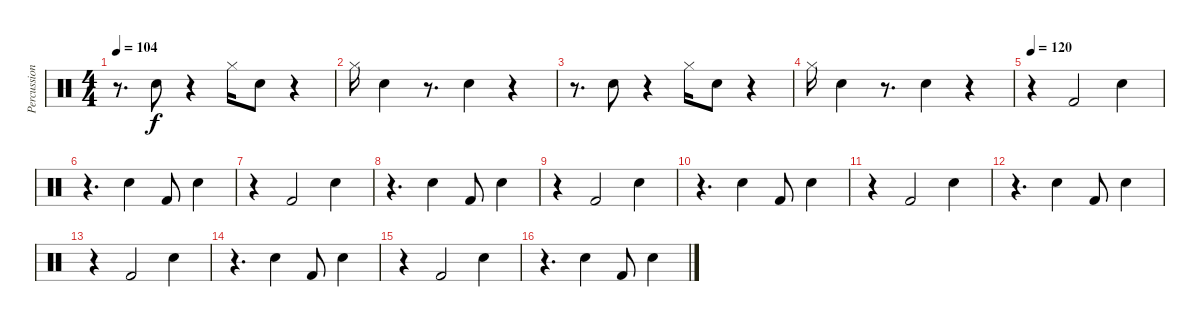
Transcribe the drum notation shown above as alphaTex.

\track ("Percussion(By Bela B.)" "Percussion") {instrument percussion}
\staff {score}
\articulation defaults
\ts (4 4)
\tempo 104
\clef neutral
\ks c
r.8{d dy f} "Electric Snare (hit)".8 r.4 "Hi-Hat (closed)".16 "Electric Snare (hit)".8 r.4 |
"Hi-Hat (closed)".16 "Electric Snare (hit)".4 r.8{d} "Electric Snare (hit)".4 r.4 |
r.8{d} "Electric Snare (hit)".8 r.4 "Hi-Hat (closed)".16 "Electric Snare (hit)".8 r.4 |
"Hi-Hat (closed)".16 "Electric Snare (hit)".4 r.8{d} "Electric Snare (hit)".4 r.4 |
\tempo 120
r.4 "Kick (hit) 2".2 "Snare (hit) 2".4 |
r.4{d} "Electric Snare (hit)".4 "Kick (hit) 2".8 "Snare (hit) 2".4 |
r.4 "Kick (hit) 2".2 "Snare (hit) 2".4 |
r.4{d} "Electric Snare (hit)".4 "Kick (hit) 2".8 "Snare (hit) 2".4 |
r.4 "Kick (hit) 2".2 "Snare (hit) 2".4 |
r.4{d} "Electric Snare (hit)".4 "Kick (hit) 2".8 "Snare (hit) 2".4 |
r.4 "Kick (hit) 2".2 "Snare (hit) 2".4 |
r.4{d} "Electric Snare (hit)".4 "Kick (hit) 2".8 "Snare (hit) 2".4 |
r.4 "Kick (hit) 2".2 "Snare (hit) 2".4 |
r.4{d} "Electric Snare (hit)".4 "Kick (hit) 2".8 "Snare (hit) 2".4 |
r.4 "Kick (hit) 2".2 "Snare (hit) 2".4 |
r.4{d} "Electric Snare (hit)".4 "Kick (hit) 2".8 "Snare (hit) 2".4
